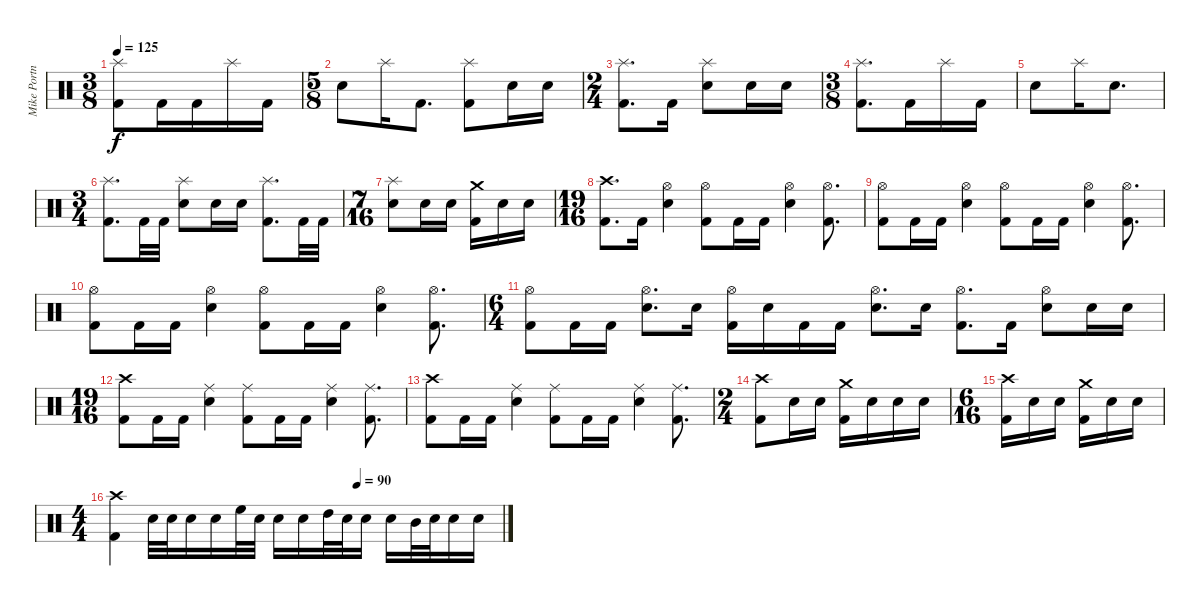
\track ("Mike Portnoy" "Mike Portn") {instrument percussion}
\staff {score}
\articulation defaults
\ts (3 8)
\tempo 125
\clef neutral
\ks c
("Splash (hit)" "Kick (hit) 2").8{dy f} "Kick (hit) 2".16 "Kick (hit) 2".16 "Splash (hit)".16 "Kick (hit) 2".16 |
\ts (5 8)
"Snare (hit) 2".8 "Splash (hit)".16 "Kick (hit) 2".8{d} ("Splash (hit)" "Kick (hit) 2").8 "Snare (hit) 2".16 "Snare (hit) 2".16 |
\ts (2 4)
("Splash (hit)" "Kick (hit) 2").8{d} "Kick (hit) 2".16 ("Splash (hit)" "Snare (hit) 2").8 "Snare (hit) 2".16 "Snare (hit) 2".16 |
\ts (3 8)
("Splash (hit)" "Kick (hit) 2").8{d} "Kick (hit) 2".16 "Splash (hit)".16 "Kick (hit) 2".16 |
"Snare (hit) 2".8 "Splash (hit)".16 "Snare (hit) 2".8{d} |
\ts (3 4)
("Splash (hit)" "Kick (hit) 2").8{d} "Kick (hit) 2".32 "Kick (hit) 2".32 ("Splash (hit)" "Snare (hit) 2").8 "Snare (hit) 2".16 "Snare (hit) 2".16 ("Splash (hit)" "Kick (hit) 2").8{d} "Kick (hit) 2".32 "Kick (hit) 2".32 |
\ts (7 16)
("Splash (hit)" "Snare (hit) 2").8 "Snare (hit) 2".16 "Snare (hit) 2".16 ("Crash medium (hit)" "Kick (hit) 2").16 "Snare (hit) 2".16 "Snare (hit) 2".16 |
\ts (19 16)
("Crash high (hit)" "Kick (hit) 2").8{d} "Kick (hit) 2".16 ("Hi-Hat (open)" "Snare (hit) 2").4 ("Hi-Hat (open)" "Kick (hit) 2").8 "Kick (hit) 2".16 "Kick (hit) 2".16 ("Hi-Hat (open)" "Snare (hit) 2").4 ("Hi-Hat (open)" "Kick (hit) 2").8{d} |
("Hi-Hat (open)" "Kick (hit) 2").8 "Kick (hit) 2".16 "Kick (hit) 2".16 ("Hi-Hat (open)" "Snare (hit) 2").4 ("Hi-Hat (open)" "Kick (hit) 2").8 "Kick (hit) 2".16 "Kick (hit) 2".16 ("Hi-Hat (open)" "Snare (hit) 2").4 ("Hi-Hat (open)" "Kick (hit) 2").8{d} |
("Hi-Hat (open)" "Kick (hit) 2").8 "Kick (hit) 2".16 "Kick (hit) 2".16 ("Hi-Hat (open)" "Snare (hit) 2").4 ("Hi-Hat (open)" "Kick (hit) 2").8 "Kick (hit) 2".16 "Kick (hit) 2".16 ("Hi-Hat (open)" "Snare (hit) 2").4 ("Hi-Hat (open)" "Kick (hit) 2").8{d} |
\ts (6 4)
("Hi-Hat (open)" "Kick (hit) 2").8 "Kick (hit) 2".16 "Kick (hit) 2".16 ("Hi-Hat (open)" "Snare (hit) 2").8{d} "Snare (hit) 2".16 ("Hi-Hat (open)" "Kick (hit) 2").16 "Snare (hit) 2".16 "Kick (hit) 2".16 "Kick (hit) 2".16 ("Hi-Hat (open)" "Snare (hit) 2").8{d} "Snare (hit) 2".16 ("Hi-Hat (open)" "Kick (hit) 2").8{d} "Kick (hit) 2".16 ("Hi-Hat (open)" "Snare (hit) 2").8 "Snare (hit) 2".16 "Snare (hit) 2".16 |
\ts (19 16)
("Crash high (hit)" "Kick (hit) 2").8 "Kick (hit) 2".16 "Kick (hit) 2".16 ("Ride (middle)" "Snare (hit) 2").4 ("Ride (middle)" "Kick (hit) 2").8 "Kick (hit) 2".16 "Kick (hit) 2".16 ("Ride (middle)" "Snare (hit) 2").4 ("Ride (middle)" "Kick (hit) 2").8{d} |
("Crash high (hit)" "Kick (hit) 2").8 "Kick (hit) 2".16 "Kick (hit) 2".16 ("Ride (middle)" "Snare (hit) 2").4 ("Ride (middle)" "Kick (hit) 2").8 "Kick (hit) 2".16 "Kick (hit) 2".16 ("Ride (middle)" "Snare (hit) 2").4 ("Ride (middle)" "Kick (hit) 2").8{d} |
\ts (2 4)
("Crash high (hit)" "Kick (hit) 2").8 "Snare (hit) 2".16 "Snare (hit) 2".16 ("Crash medium (hit)" "Kick (hit) 2").16 "Snare (hit) 2".16 "Snare (hit) 2".16 "Snare (hit) 2".16 |
\ts (6 16)
("Crash high (hit)" "Kick (hit) 2").16 "Snare (hit) 2".16 "Snare (hit) 2".16 ("Crash medium (hit)" "Kick (hit) 2").16 "Snare (hit) 2".16 "Snare (hit) 2".16 |
\ts (4 4)
\tempo (90 0.625)
("Crash high (hit)" "Kick (hit) 2").4 "Snare (hit) 2".32 "Snare (hit) 2".32 "Snare (hit) 2".16 "Snare (hit) 2".16 "High Floor Tom (hit)".32 "Snare (hit) 2".32 "Snare (hit) 2".16 "Snare (hit) 2".16 "High Tom (hit)".32 "Snare (hit) 2".32 "Snare (hit) 2".16 "Snare (hit) 2".16 "Mid Tom (hit)".32 "Snare (hit) 2".32 "Snare (hit) 2".16 "Snare (hit) 2".16
